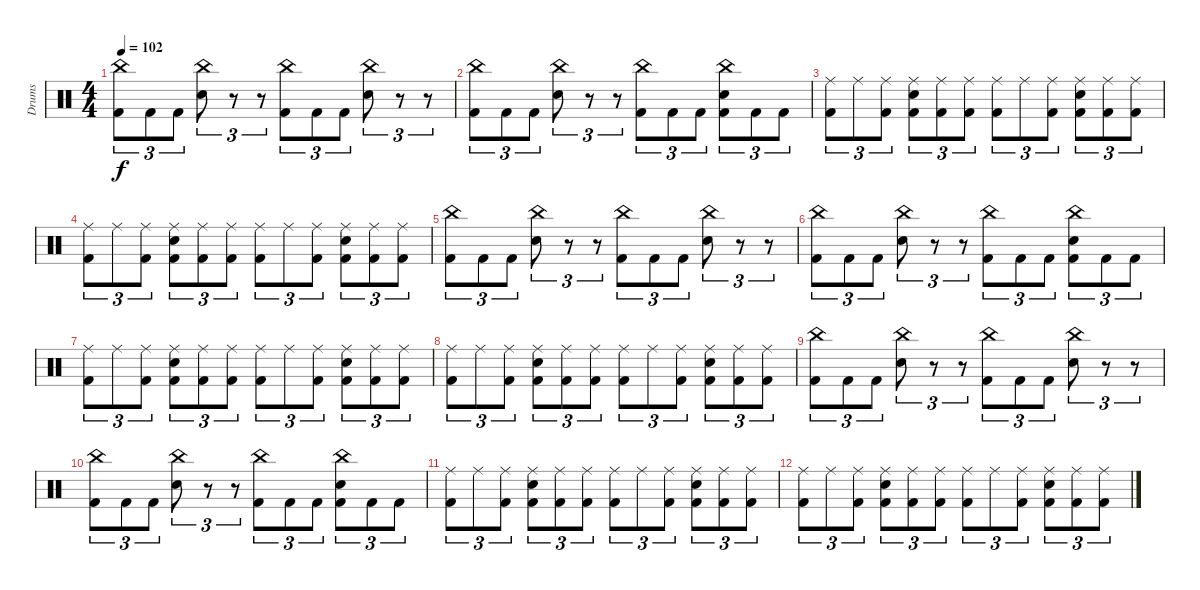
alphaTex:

\track ("Drums" "Drums") {instrument percussion}
\staff {score}
\articulation defaults
\ts (4 4)
\tempo 102
\clef neutral
\ks c
("China (hit)" "Kick (hit) 2").8{tu (3 2) dy f} "Kick (hit) 2".8{tu (3 2)} "Kick (hit) 2".8{tu (3 2)} ("China (hit)" "Snare (hit) 2").8{tu (3 2)} r.8{tu (3 2)} r.8{tu (3 2)} ("China (hit)" "Kick (hit) 2").8{tu (3 2)} "Kick (hit) 2".8{tu (3 2)} "Kick (hit) 2".8{tu (3 2)} ("China (hit)" "Snare (hit) 2").8{tu (3 2)} r.8{tu (3 2)} r.8{tu (3 2)} |
("China (hit)" "Kick (hit) 2").8{tu (3 2)} "Kick (hit) 2".8{tu (3 2)} "Kick (hit) 2".8{tu (3 2)} ("China (hit)" "Snare (hit) 2").8{tu (3 2)} r.8{tu (3 2)} r.8{tu (3 2)} ("China (hit)" "Kick (hit) 2").8{tu (3 2)} "Kick (hit) 2".8{tu (3 2)} "Kick (hit) 2".8{tu (3 2)} ("China (hit)" "Snare (hit) 2" "Kick (hit) 2").8{tu (3 2)} "Kick (hit) 2".8{tu (3 2)} "Kick (hit) 2".8{tu (3 2)} |
("Ride (middle)" "Kick (hit) 2").8{tu (3 2)} "Ride (middle)".8{tu (3 2)} ("Ride (middle)" "Kick (hit) 2").8{tu (3 2)} ("Ride (middle)" "Snare (hit) 2" "Kick (hit) 2").8{tu (3 2)} ("Ride (middle)" "Kick (hit) 2").8{tu (3 2)} ("Ride (middle)" "Kick (hit) 2").8{tu (3 2)} ("Ride (middle)" "Kick (hit) 2").8{tu (3 2)} "Ride (middle)".8{tu (3 2)} ("Ride (middle)" "Kick (hit) 2").8{tu (3 2)} ("Ride (middle)" "Snare (hit) 2" "Kick (hit) 2").8{tu (3 2)} ("Ride (middle)" "Kick (hit) 2").8{tu (3 2)} ("Ride (middle)" "Kick (hit) 2").8{tu (3 2)} |
("Ride (middle)" "Kick (hit) 2").8{tu (3 2)} "Ride (middle)".8{tu (3 2)} ("Ride (middle)" "Kick (hit) 2").8{tu (3 2)} ("Ride (middle)" "Snare (hit) 2" "Kick (hit) 2").8{tu (3 2)} ("Ride (middle)" "Kick (hit) 2").8{tu (3 2)} ("Ride (middle)" "Kick (hit) 2").8{tu (3 2)} ("Ride (middle)" "Kick (hit) 2").8{tu (3 2)} "Ride (middle)".8{tu (3 2)} ("Ride (middle)" "Kick (hit) 2").8{tu (3 2)} ("Ride (middle)" "Snare (hit) 2" "Kick (hit) 2").8{tu (3 2)} ("Ride (middle)" "Kick (hit) 2").8{tu (3 2)} ("Ride (middle)" "Kick (hit) 2").8{tu (3 2)} |
("China (hit)" "Kick (hit) 2").8{tu (3 2) volume 14} "Kick (hit) 2".8{tu (3 2)} "Kick (hit) 2".8{tu (3 2)} ("China (hit)" "Snare (hit) 2").8{tu (3 2)} r.8{tu (3 2)} r.8{tu (3 2)} ("China (hit)" "Kick (hit) 2").8{tu (3 2)} "Kick (hit) 2".8{tu (3 2)} "Kick (hit) 2".8{tu (3 2)} ("China (hit)" "Snare (hit) 2").8{tu (3 2)} r.8{tu (3 2)} r.8{tu (3 2)} |
("China (hit)" "Kick (hit) 2").8{tu (3 2) volume 12} "Kick (hit) 2".8{tu (3 2)} "Kick (hit) 2".8{tu (3 2)} ("China (hit)" "Snare (hit) 2").8{tu (3 2)} r.8{tu (3 2)} r.8{tu (3 2)} ("China (hit)" "Kick (hit) 2").8{tu (3 2)} "Kick (hit) 2".8{tu (3 2)} "Kick (hit) 2".8{tu (3 2)} ("China (hit)" "Snare (hit) 2" "Kick (hit) 2").8{tu (3 2)} "Kick (hit) 2".8{tu (3 2)} "Kick (hit) 2".8{tu (3 2)} |
("Ride (middle)" "Kick (hit) 2").8{tu (3 2) volume 10} "Ride (middle)".8{tu (3 2)} ("Ride (middle)" "Kick (hit) 2").8{tu (3 2)} ("Ride (middle)" "Snare (hit) 2" "Kick (hit) 2").8{tu (3 2)} ("Ride (middle)" "Kick (hit) 2").8{tu (3 2)} ("Ride (middle)" "Kick (hit) 2").8{tu (3 2)} ("Ride (middle)" "Kick (hit) 2").8{tu (3 2)} "Ride (middle)".8{tu (3 2)} ("Ride (middle)" "Kick (hit) 2").8{tu (3 2)} ("Ride (middle)" "Snare (hit) 2" "Kick (hit) 2").8{tu (3 2)} ("Ride (middle)" "Kick (hit) 2").8{tu (3 2)} ("Ride (middle)" "Kick (hit) 2").8{tu (3 2)} |
("Ride (middle)" "Kick (hit) 2").8{tu (3 2) volume 8} "Ride (middle)".8{tu (3 2)} ("Ride (middle)" "Kick (hit) 2").8{tu (3 2)} ("Ride (middle)" "Snare (hit) 2" "Kick (hit) 2").8{tu (3 2)} ("Ride (middle)" "Kick (hit) 2").8{tu (3 2)} ("Ride (middle)" "Kick (hit) 2").8{tu (3 2)} ("Ride (middle)" "Kick (hit) 2").8{tu (3 2)} "Ride (middle)".8{tu (3 2)} ("Ride (middle)" "Kick (hit) 2").8{tu (3 2)} ("Ride (middle)" "Snare (hit) 2" "Kick (hit) 2").8{tu (3 2)} ("Ride (middle)" "Kick (hit) 2").8{tu (3 2)} ("Ride (middle)" "Kick (hit) 2").8{tu (3 2)} |
("China (hit)" "Kick (hit) 2").8{tu (3 2) volume 6} "Kick (hit) 2".8{tu (3 2)} "Kick (hit) 2".8{tu (3 2)} ("China (hit)" "Snare (hit) 2").8{tu (3 2)} r.8{tu (3 2)} r.8{tu (3 2)} ("China (hit)" "Kick (hit) 2").8{tu (3 2)} "Kick (hit) 2".8{tu (3 2)} "Kick (hit) 2".8{tu (3 2)} ("China (hit)" "Snare (hit) 2").8{tu (3 2)} r.8{tu (3 2)} r.8{tu (3 2)} |
("China (hit)" "Kick (hit) 2").8{tu (3 2) volume 2} "Kick (hit) 2".8{tu (3 2)} "Kick (hit) 2".8{tu (3 2)} ("China (hit)" "Snare (hit) 2").8{tu (3 2)} r.8{tu (3 2)} r.8{tu (3 2)} ("China (hit)" "Kick (hit) 2").8{tu (3 2)} "Kick (hit) 2".8{tu (3 2)} "Kick (hit) 2".8{tu (3 2)} ("China (hit)" "Snare (hit) 2" "Kick (hit) 2").8{tu (3 2)} "Kick (hit) 2".8{tu (3 2)} "Kick (hit) 2".8{tu (3 2)} |
("Ride (middle)" "Kick (hit) 2").8{tu (3 2) volume 0} "Ride (middle)".8{tu (3 2)} ("Ride (middle)" "Kick (hit) 2").8{tu (3 2)} ("Ride (middle)" "Snare (hit) 2" "Kick (hit) 2").8{tu (3 2)} ("Ride (middle)" "Kick (hit) 2").8{tu (3 2)} ("Ride (middle)" "Kick (hit) 2").8{tu (3 2)} ("Ride (middle)" "Kick (hit) 2").8{tu (3 2)} "Ride (middle)".8{tu (3 2)} ("Ride (middle)" "Kick (hit) 2").8{tu (3 2)} ("Ride (middle)" "Snare (hit) 2" "Kick (hit) 2").8{tu (3 2)} ("Ride (middle)" "Kick (hit) 2").8{tu (3 2)} ("Ride (middle)" "Kick (hit) 2").8{tu (3 2)} |
("Ride (middle)" "Kick (hit) 2").8{tu (3 2)} "Ride (middle)".8{tu (3 2)} ("Ride (middle)" "Kick (hit) 2").8{tu (3 2)} ("Ride (middle)" "Snare (hit) 2" "Kick (hit) 2").8{tu (3 2)} ("Ride (middle)" "Kick (hit) 2").8{tu (3 2)} ("Ride (middle)" "Kick (hit) 2").8{tu (3 2)} ("Ride (middle)" "Kick (hit) 2").8{tu (3 2)} "Ride (middle)".8{tu (3 2)} ("Ride (middle)" "Kick (hit) 2").8{tu (3 2)} ("Ride (middle)" "Snare (hit) 2" "Kick (hit) 2").8{tu (3 2)} ("Ride (middle)" "Kick (hit) 2").8{tu (3 2)} ("Ride (middle)" "Kick (hit) 2").8{tu (3 2)}
